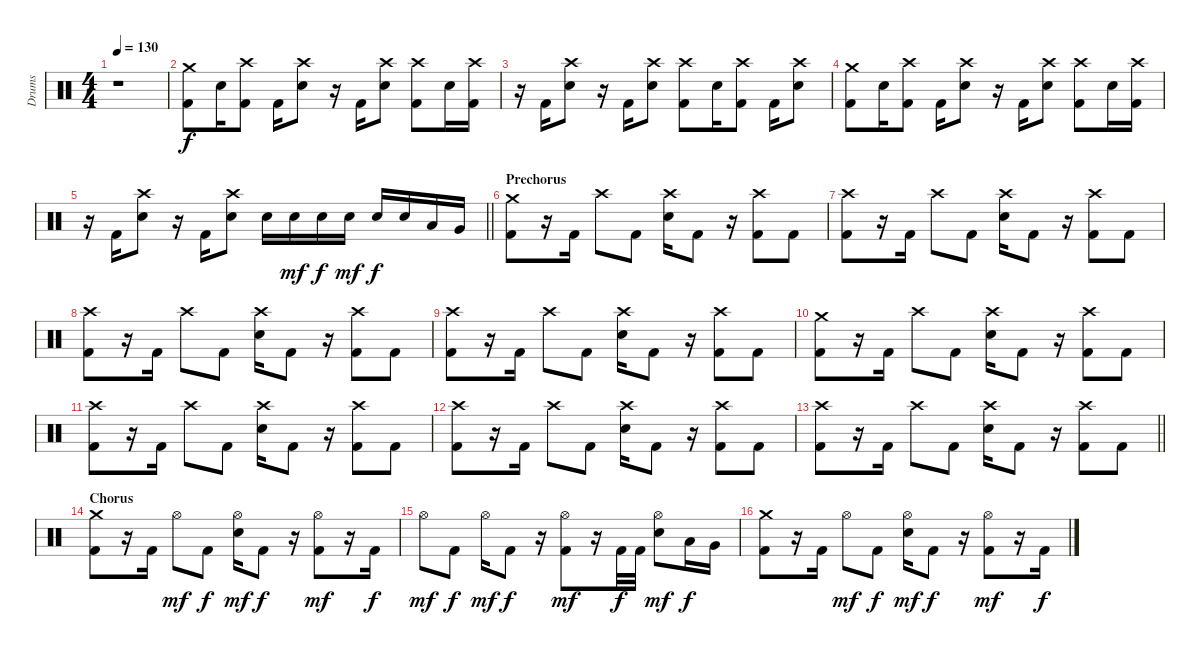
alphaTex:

\track ("Drums" "Drums") {instrument percussion}
\staff {score}
\articulation defaults
\ts (4 4)
\tempo 130
\clef neutral
\ks c
r.1{dy f} |
("Kick (hit) 2" "Crash medium (hit)").8 "Electric Snare (hit)".16 ("Kick (hit) 2" "Crash high (hit)").8 "Kick (hit) 2".16 ("Crash high (hit)" "Electric Snare (hit)").8 r.16 "Kick (hit) 2".16 ("Crash high (hit)" "Electric Snare (hit)").8 ("Kick (hit) 2" "Crash high (hit)").8 "Electric Snare (hit)".16 ("Kick (hit) 2" "Crash high (hit)").16 |
r.16 "Kick (hit) 2".16 ("Crash high (hit)" "Electric Snare (hit)").8 r.16 "Kick (hit) 2".16 ("Crash high (hit)" "Electric Snare (hit)").8 ("Kick (hit) 2" "Crash high (hit)").8 "Electric Snare (hit)".16 ("Kick (hit) 2" "Crash high (hit)").8 "Kick (hit) 2".16 ("Crash high (hit)" "Electric Snare (hit)").8 |
("Kick (hit) 2" "Crash medium (hit)").8 "Electric Snare (hit)".16 ("Kick (hit) 2" "Crash high (hit)").8 "Kick (hit) 2".16 ("Crash high (hit)" "Electric Snare (hit)").8 r.16 "Kick (hit) 2".16 ("Crash high (hit)" "Electric Snare (hit)").8 ("Kick (hit) 2" "Crash high (hit)").8 "Electric Snare (hit)".16 ("Kick (hit) 2" "Crash high (hit)").16 |
\barLineRight lightlight
r.16 "Kick (hit) 2".16 ("Crash high (hit)" "Electric Snare (hit)").8 r.16 "Kick (hit) 2".16 ("Crash high (hit)" "Electric Snare (hit)").8 "Electric Snare (hit)".16 "Electric Snare (hit)".16{dy mf} "Electric Snare (hit)".16{dy f} "Electric Snare (hit)".16{dy mf} "Electric Snare (hit)".16{dy f} "Electric Snare (hit)".16 "Low Tom (hit)".16 "Very Low Tom (hit)".16 |
\section ("" "Prechorus")
("Kick (hit) 2" "Crash medium (hit)").8 r.16 "Kick (hit) 2".16 "Crash high (hit)".8 "Kick (hit) 2".8 ("Crash high (hit)" "Electric Snare (hit)").16 "Kick (hit) 2".8 r.16 ("Kick (hit) 2" "Crash high (hit)").8 "Kick (hit) 2".8 |
("Kick (hit) 2" "Crash high (hit)").8 r.16 "Kick (hit) 2".16 "Crash high (hit)".8 "Kick (hit) 2".8 ("Crash high (hit)" "Electric Snare (hit)").16 "Kick (hit) 2".8 r.16 ("Kick (hit) 2" "Crash high (hit)").8 "Kick (hit) 2".8 |
("Kick (hit) 2" "Crash high (hit)").8 r.16 "Kick (hit) 2".16 "Crash high (hit)".8 "Kick (hit) 2".8 ("Crash high (hit)" "Electric Snare (hit)").16 "Kick (hit) 2".8 r.16 ("Kick (hit) 2" "Crash high (hit)").8 "Kick (hit) 2".8 |
("Kick (hit) 2" "Crash high (hit)").8 r.16 "Kick (hit) 2".16 "Crash high (hit)".8 "Kick (hit) 2".8 ("Crash high (hit)" "Electric Snare (hit)").16 "Kick (hit) 2".8 r.16 ("Kick (hit) 2" "Crash high (hit)").8 "Kick (hit) 2".8 |
("Kick (hit) 2" "Crash medium (hit)").8 r.16 "Kick (hit) 2".16 "Crash high (hit)".8 "Kick (hit) 2".8 ("Crash high (hit)" "Electric Snare (hit)").16 "Kick (hit) 2".8 r.16 ("Kick (hit) 2" "Crash high (hit)").8 "Kick (hit) 2".8 |
("Kick (hit) 2" "Crash high (hit)").8 r.16 "Kick (hit) 2".16 "Crash high (hit)".8 "Kick (hit) 2".8 ("Crash high (hit)" "Electric Snare (hit)").16 "Kick (hit) 2".8 r.16 ("Kick (hit) 2" "Crash high (hit)").8 "Kick (hit) 2".8 |
("Kick (hit) 2" "Crash high (hit)").8 r.16 "Kick (hit) 2".16 "Crash high (hit)".8 "Kick (hit) 2".8 ("Crash high (hit)" "Electric Snare (hit)").16 "Kick (hit) 2".8 r.16 ("Kick (hit) 2" "Crash high (hit)").8 "Kick (hit) 2".8 |
\barLineRight lightlight
("Kick (hit) 2" "Crash high (hit)").8 r.16 "Kick (hit) 2".16 "Crash high (hit)".8 "Kick (hit) 2".8 ("Crash high (hit)" "Electric Snare (hit)").16 "Kick (hit) 2".8 r.16 ("Kick (hit) 2" "Crash high (hit)").8 "Kick (hit) 2".8 |
\section ("" "Chorus")
("Kick (hit) 2" "Crash medium (hit)").8 r.16 "Kick (hit) 2".16 "Hi-Hat (open)".8{dy mf} "Kick (hit) 2".8{dy f} ("Hi-Hat (open)" "Electric Snare (hit)").16{dy mf} "Kick (hit) 2".8{dy f} r.16 ("Kick (hit) 2" "Hi-Hat (open)").8{dy mf} r.16 "Kick (hit) 2".16{dy f} |
"Hi-Hat (open)".8{dy mf} "Kick (hit) 2".8{dy f} "Hi-Hat (open)".16{dy mf} "Kick (hit) 2".8{dy f} r.16 ("Kick (hit) 2" "Hi-Hat (open)").8{dy mf} r.16 "Kick (hit) 2".32{dy f} "Kick (hit) 2".32 ("Hi-Hat (open)" "Electric Snare (hit)").8{dy mf} "Low Tom (hit)".16{dy f} "Very Low Tom (hit)".16 |
("Kick (hit) 2" "Crash medium (hit)").8 r.16 "Kick (hit) 2".16 "Hi-Hat (open)".8{dy mf} "Kick (hit) 2".8{dy f} ("Hi-Hat (open)" "Electric Snare (hit)").16{dy mf} "Kick (hit) 2".8{dy f} r.16 ("Kick (hit) 2" "Hi-Hat (open)").8{dy mf} r.16 "Kick (hit) 2".16{dy f}
